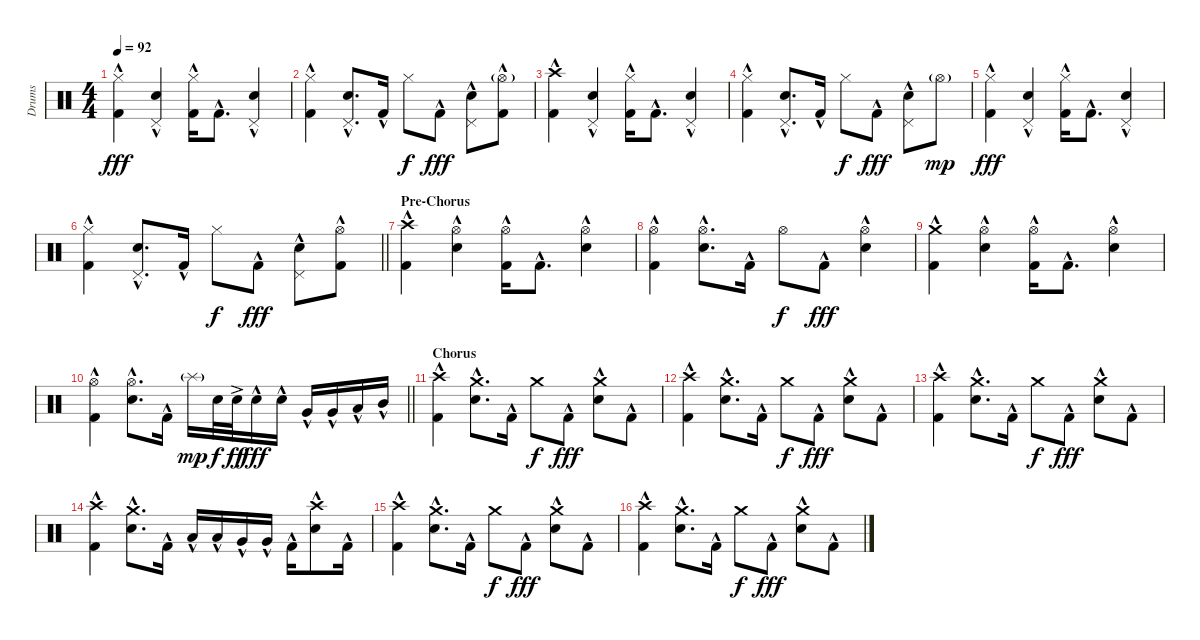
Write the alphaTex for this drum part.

\track ("Drums" "Drums") {instrument percussion}
\staff {score}
\articulation defaults
\ts (4 4)
\tempo 92
\clef neutral
\ks c
("Hi-Hat (closed)" "Kick (hit) 2"{hac}).4{dy fff} ("Pedal Hi-Hat (hit)" "Electric Snare (hit)"{hac}).4 ("Hi-Hat (closed)" "Kick (hit) 2"{hac}).16 "Kick (hit) 2"{hac}.8{d} ("Pedal Hi-Hat (hit)" "Electric Snare (hit)"{hac}).4 |
("Hi-Hat (closed)" "Kick (hit) 2"{hac}).4 ("Pedal Hi-Hat (hit)" "Electric Snare (hit)"{hac}).8{d} "Kick (hit) 2"{hac}.16 "Hi-Hat (closed)".8{dy f} "Kick (hit) 2"{hac}.8{dy fff} ("Pedal Hi-Hat (hit)" "Electric Snare (hit)"{hac}).8 ("Hi-Hat (open)"{g} "Kick (hit) 2"{hac}).8 |
("Crash high (hit)" "Kick (hit) 2"{hac}).4 ("Pedal Hi-Hat (hit)" "Electric Snare (hit)"{hac}).4 ("Hi-Hat (closed)" "Kick (hit) 2"{hac}).16 "Kick (hit) 2"{hac}.8{d} ("Pedal Hi-Hat (hit)" "Electric Snare (hit)"{hac}).4 |
("Hi-Hat (closed)" "Kick (hit) 2"{hac}).4 ("Pedal Hi-Hat (hit)" "Electric Snare (hit)"{hac}).8{d} "Kick (hit) 2"{hac}.16 "Hi-Hat (closed)".8{dy f} "Kick (hit) 2"{hac}.8{dy fff} ("Pedal Hi-Hat (hit)" "Electric Snare (hit)"{hac}).8 "Hi-Hat (open)"{g}.8{dy mp} |
("Hi-Hat (closed)" "Kick (hit) 2"{hac}).4{dy fff} ("Pedal Hi-Hat (hit)" "Electric Snare (hit)"{hac}).4 ("Hi-Hat (closed)" "Kick (hit) 2"{hac}).16 "Kick (hit) 2"{hac}.8{d} ("Pedal Hi-Hat (hit)" "Electric Snare (hit)"{hac}).4 |
\barLineRight lightlight
("Hi-Hat (closed)" "Kick (hit) 2"{hac}).4 ("Pedal Hi-Hat (hit)" "Electric Snare (hit)"{hac}).8{d} "Kick (hit) 2"{hac}.16 "Hi-Hat (closed)".8{dy f} "Kick (hit) 2"{hac}.8{dy fff} ("Pedal Hi-Hat (hit)" "Electric Snare (hit)"{hac}).8 ("Hi-Hat (open)" "Kick (hit) 2"{hac}).8 |
\section ("" "Pre-Chorus")
("Crash high (hit)" "Kick (hit) 2"{hac}).4 ("Hi-Hat (open)" "Electric Snare (hit)"{hac}).4 ("Hi-Hat (open)" "Kick (hit) 2"{hac}).16 "Kick (hit) 2"{hac}.8{d} ("Hi-Hat (open)" "Electric Snare (hit)"{hac}).4 |
("Hi-Hat (open)" "Kick (hit) 2"{hac}).4 ("Hi-Hat (open)" "Electric Snare (hit)"{hac}).8{d} "Kick (hit) 2"{hac}.16 "Hi-Hat (open)".8{dy f} "Kick (hit) 2"{hac}.8{dy fff} ("Hi-Hat (open)" "Electric Snare (hit)"{hac}).4 |
("Crash medium (hit)" "Kick (hit) 2"{hac}).4 ("Hi-Hat (open)" "Electric Snare (hit)"{hac}).4 ("Hi-Hat (open)" "Kick (hit) 2"{hac}).16 "Kick (hit) 2"{hac}.8{d} ("Hi-Hat (open)" "Electric Snare (hit)"{hac}).4 |
\barLineRight lightlight
("Hi-Hat (open)" "Kick (hit) 2"{hac}).4 ("Hi-Hat (open)" "Electric Snare (hit)"{hac}).8{d} "Kick (hit) 2"{hac}.16 "Splash (hit)"{g}.16{dy mp} "Electric Snare (hit)".32{dy f} "Electric Snare (hit)"{ac}.32{dy ff} "Electric Snare (hit)"{hac}.16{dy fff} "Electric Snare (hit)"{hac}.16 "Very Low Tom (hit)"{hac}.16 "Very Low Tom (hit)"{hac}.16 "Low Tom (hit)"{hac}.16 "Mid Tom (hit)"{hac}.16 |
\section ("" "Chorus")
("Crash high (hit)" "Kick (hit) 2"{hac}).4 ("Crash medium (hit)" "Electric Snare (hit)"{hac}).8{d} "Kick (hit) 2"{hac}.16 "Crash medium (hit)".8{dy f} "Kick (hit) 2"{hac}.8{dy fff} ("Crash medium (hit)" "Electric Snare (hit)"{hac}).8 "Kick (hit) 2"{hac}.8 |
("Crash high (hit)" "Kick (hit) 2"{hac}).4 ("Crash medium (hit)" "Electric Snare (hit)"{hac}).8{d} "Kick (hit) 2"{hac}.16 "Crash medium (hit)".8{dy f} "Kick (hit) 2"{hac}.8{dy fff} ("Crash medium (hit)" "Electric Snare (hit)"{hac}).8 "Kick (hit) 2"{hac}.8 |
("Crash high (hit)" "Kick (hit) 2"{hac}).4 ("Crash medium (hit)" "Electric Snare (hit)"{hac}).8{d} "Kick (hit) 2"{hac}.16 "Crash medium (hit)".8{dy f} "Kick (hit) 2"{hac}.8{dy fff} ("Crash medium (hit)" "Electric Snare (hit)"{hac}).8 "Kick (hit) 2"{hac}.8 |
("Crash high (hit)" "Kick (hit) 2"{hac}).4 ("Crash medium (hit)" "Electric Snare (hit)"{hac}).8{d} "Kick (hit) 2"{hac}.16 "Low Floor Tom (hit)"{hac}.16 "Low Floor Tom (hit)"{hac}.16 "Very Low Tom (hit)"{hac}.16 "Very Low Tom (hit)"{hac}.16 "Kick (hit) 2"{hac}.16 ("Crash high (hit)" "Electric Snare (hit)"{hac}).8 "Kick (hit) 2"{hac}.16 |
("Crash high (hit)" "Kick (hit) 2"{hac}).4 ("Crash medium (hit)" "Electric Snare (hit)"{hac}).8{d} "Kick (hit) 2"{hac}.16 "Crash medium (hit)".8{dy f} "Kick (hit) 2"{hac}.8{dy fff} ("Crash medium (hit)" "Electric Snare (hit)"{hac}).8 "Kick (hit) 2"{hac}.8 |
("Crash high (hit)" "Kick (hit) 2"{hac}).4 ("Crash medium (hit)" "Electric Snare (hit)"{hac}).8{d} "Kick (hit) 2"{hac}.16 "Crash medium (hit)".8{dy f} "Kick (hit) 2"{hac}.8{dy fff} ("Crash medium (hit)" "Electric Snare (hit)"{hac}).8 "Kick (hit) 2"{hac}.8
